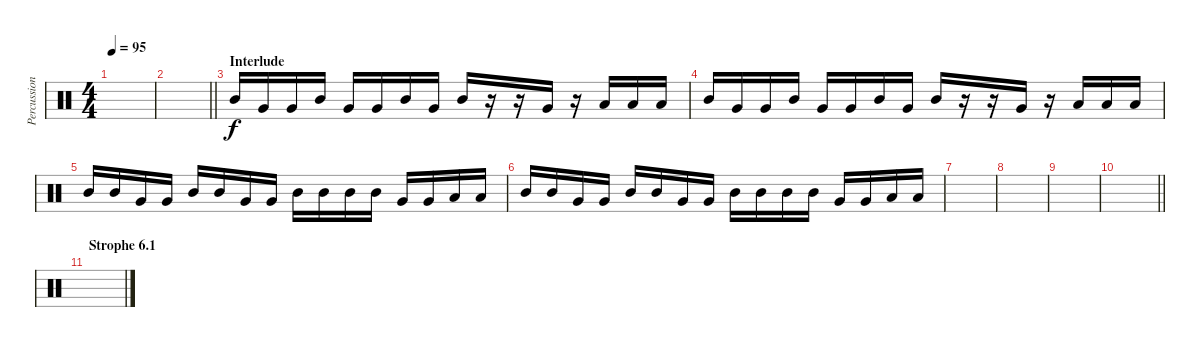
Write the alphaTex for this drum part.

\track ("Percussion" "Percussion") {instrument percussion}
\staff {score}
\articulation defaults
\ts (4 4)
\tempo 95
\clef neutral
\ks c
|
\barLineRight lightlight
|
\section ("" "Interlude")
"Mid Tom (hit)".16 "Very Low Tom (hit)".16 "Very Low Tom (hit)".16 "Mid Tom (hit)".16 "Very Low Tom (hit)".16 "Very Low Tom (hit)".16 "Mid Tom (hit)".16 "Very Low Tom (hit)".16 "Mid Tom (hit)".16 r.16 r.16 "Very Low Tom (hit)".16 r.16 "Low Floor Tom (hit)".16 "Low Floor Tom (hit)".16 "Low Floor Tom (hit)".16 |
"Mid Tom (hit)".16 "Very Low Tom (hit)".16 "Very Low Tom (hit)".16 "Mid Tom (hit)".16 "Very Low Tom (hit)".16 "Very Low Tom (hit)".16 "Mid Tom (hit)".16 "Very Low Tom (hit)".16 "Mid Tom (hit)".16 r.16 r.16 "Very Low Tom (hit)".16 r.16 "Low Floor Tom (hit)".16 "Low Floor Tom (hit)".16 "Low Floor Tom (hit)".16 |
"Mid Tom (hit)".16 "Mid Tom (hit)".16 "Very Low Tom (hit)".16 "Very Low Tom (hit)".16 "Mid Tom (hit)".16 "Mid Tom (hit)".16 "Very Low Tom (hit)".16 "Very Low Tom (hit)".16 "Mid Tom (hit)".16 "Mid Tom (hit)".16 "Mid Tom (hit)".16 "Mid Tom (hit)".16 "Very Low Tom (hit)".16 "Very Low Tom (hit)".16 "Low Floor Tom (hit)".16 "Low Floor Tom (hit)".16 |
"Mid Tom (hit)".16 "Mid Tom (hit)".16 "Very Low Tom (hit)".16 "Very Low Tom (hit)".16 "Mid Tom (hit)".16 "Mid Tom (hit)".16 "Very Low Tom (hit)".16 "Very Low Tom (hit)".16 "Mid Tom (hit)".16 "Mid Tom (hit)".16 "Mid Tom (hit)".16 "Mid Tom (hit)".16 "Very Low Tom (hit)".16 "Very Low Tom (hit)".16 "Low Floor Tom (hit)".16 "Low Floor Tom (hit)".16 |
|
|
|
\barLineRight lightlight
|
\section ("" "Strophe 6.1")
